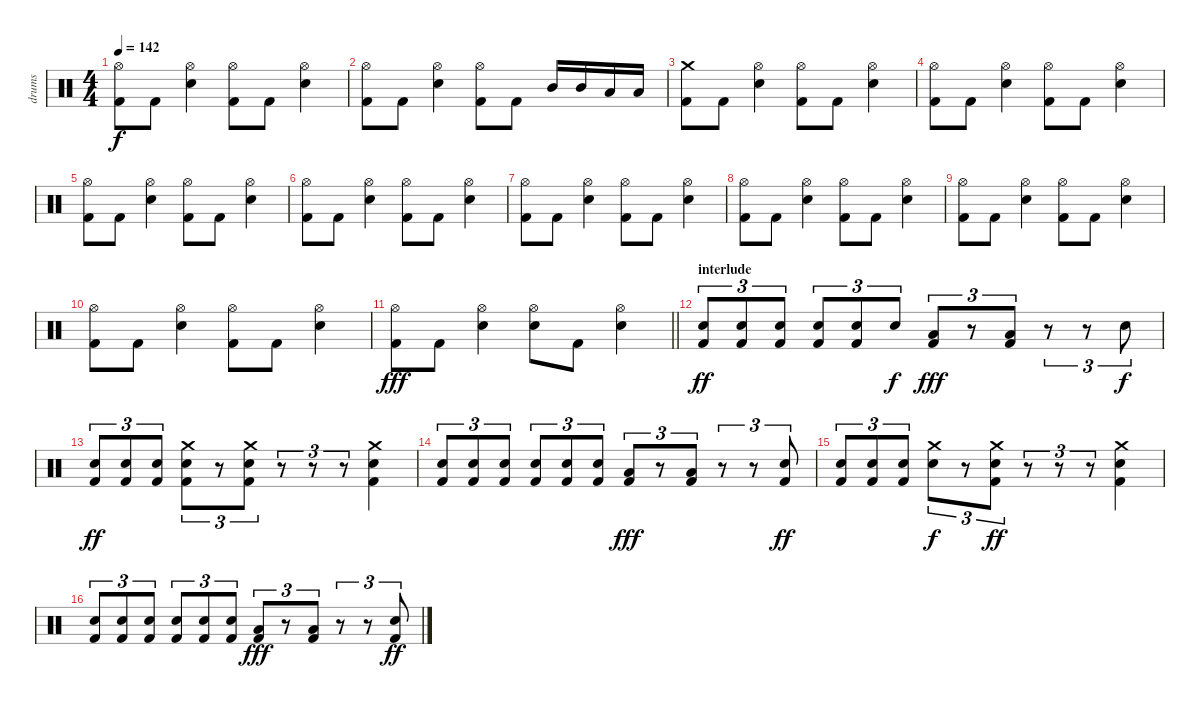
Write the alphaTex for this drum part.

\track ("drums" "drums") {instrument percussion}
\staff {score}
\articulation defaults
\ts (4 4)
\tempo 142
\clef neutral
\ks c
("Hi-Hat (open)" "Kick (hit) 2").8{dy f} "Kick (hit) 2".8 ("Hi-Hat (open)" "Electric Snare (hit)").4 ("Hi-Hat (open)" "Kick (hit) 2").8 "Kick (hit) 2".8 ("Hi-Hat (open)" "Electric Snare (hit)").4 |
("Hi-Hat (open)" "Kick (hit) 2").8 "Kick (hit) 2".8 ("Hi-Hat (open)" "Electric Snare (hit)").4 ("Hi-Hat (open)" "Kick (hit) 2").8 "Kick (hit) 2".8 "Mid Tom (hit)".16 "Mid Tom (hit)".16 "Low Tom (hit)".16 "Low Tom (hit)".16 |
("Crash medium (hit)" "Kick (hit) 2").8 "Kick (hit) 2".8 ("Hi-Hat (open)" "Electric Snare (hit)").4 ("Hi-Hat (open)" "Kick (hit) 2").8 "Kick (hit) 2".8 ("Hi-Hat (open)" "Electric Snare (hit)").4 |
("Hi-Hat (open)" "Kick (hit) 2").8 "Kick (hit) 2".8 ("Hi-Hat (open)" "Electric Snare (hit)").4 ("Hi-Hat (open)" "Kick (hit) 2").8 "Kick (hit) 2".8 ("Hi-Hat (open)" "Electric Snare (hit)").4 |
("Hi-Hat (open)" "Kick (hit) 2").8 "Kick (hit) 2".8 ("Hi-Hat (open)" "Electric Snare (hit)").4 ("Hi-Hat (open)" "Kick (hit) 2").8 "Kick (hit) 2".8 ("Hi-Hat (open)" "Electric Snare (hit)").4 |
("Hi-Hat (open)" "Kick (hit) 2").8 "Kick (hit) 2".8 ("Hi-Hat (open)" "Electric Snare (hit)").4 ("Hi-Hat (open)" "Kick (hit) 2").8 "Kick (hit) 2".8 ("Hi-Hat (open)" "Electric Snare (hit)").4 |
("Hi-Hat (open)" "Kick (hit) 2").8 "Kick (hit) 2".8 ("Hi-Hat (open)" "Electric Snare (hit)").4 ("Hi-Hat (open)" "Kick (hit) 2").8 "Kick (hit) 2".8 ("Hi-Hat (open)" "Electric Snare (hit)").4 |
("Hi-Hat (open)" "Kick (hit) 2").8 "Kick (hit) 2".8 ("Hi-Hat (open)" "Electric Snare (hit)").4 ("Hi-Hat (open)" "Kick (hit) 2").8 "Kick (hit) 2".8 ("Hi-Hat (open)" "Electric Snare (hit)").4 |
("Hi-Hat (open)" "Kick (hit) 2").8 "Kick (hit) 2".8 ("Hi-Hat (open)" "Electric Snare (hit)").4 ("Hi-Hat (open)" "Kick (hit) 2").8 "Kick (hit) 2".8 ("Hi-Hat (open)" "Electric Snare (hit)").4 |
("Hi-Hat (open)" "Kick (hit) 2").8 "Kick (hit) 2".8 ("Hi-Hat (open)" "Electric Snare (hit)").4 ("Hi-Hat (open)" "Kick (hit) 2").8 "Kick (hit) 2".8 ("Hi-Hat (open)" "Electric Snare (hit)").4 |
\barLineRight lightlight
("Hi-Hat (open)" "Kick (hit) 2").8{dy fff} "Kick (hit) 2".8 ("Hi-Hat (open)" "Electric Snare (hit)").4 ("Hi-Hat (open)" "Electric Snare (hit)").8 "Kick (hit) 2".8 ("Hi-Hat (open)" "Electric Snare (hit)").4 |
\section ("" "interlude")
("Electric Snare (hit)" "Kick (hit) 2").8{tu (3 2) dy ff volume 13} ("Electric Snare (hit)" "Kick (hit) 2").8{tu (3 2)} ("Electric Snare (hit)" "Kick (hit) 2").8{tu (3 2)} ("Electric Snare (hit)" "Kick (hit) 2").8{tu (3 2)} ("Electric Snare (hit)" "Kick (hit) 2").8{tu (3 2)} "Electric Snare (hit)".8{tu (3 2) dy f} ("Low Floor Tom (hit)" "Kick (hit) 2").8{tu (3 2) dy fff} r.8{tu (3 2)} ("Low Floor Tom (hit)" "Kick (hit) 2").8{tu (3 2)} r.8{tu (3 2)} r.8{tu (3 2)} "Electric Snare (hit)".8{tu (3 2) dy f} |
("Electric Snare (hit)" "Kick (hit) 2").8{tu (3 2) dy ff} ("Electric Snare (hit)" "Kick (hit) 2").8{tu (3 2)} ("Electric Snare (hit)" "Kick (hit) 2").8{tu (3 2)} ("Crash medium (hit)" "Electric Snare (hit)" "Kick (hit) 2").8{tu (3 2)} r.8{tu (3 2)} ("Crash medium (hit)" "Electric Snare (hit)" "Kick (hit) 2").8{tu (3 2)} r.8{tu (3 2)} r.8{tu (3 2)} r.8{tu (3 2)} ("Crash medium (hit)" "Electric Snare (hit)" "Kick (hit) 2").4 |
("Electric Snare (hit)" "Kick (hit) 2").8{tu (3 2)} ("Electric Snare (hit)" "Kick (hit) 2").8{tu (3 2)} ("Electric Snare (hit)" "Kick (hit) 2").8{tu (3 2)} ("Electric Snare (hit)" "Kick (hit) 2").8{tu (3 2)} ("Electric Snare (hit)" "Kick (hit) 2").8{tu (3 2)} ("Electric Snare (hit)" "Kick (hit) 2").8{tu (3 2)} ("Low Floor Tom (hit)" "Kick (hit) 2").8{tu (3 2) dy fff} r.8{tu (3 2)} ("Low Floor Tom (hit)" "Kick (hit) 2").8{tu (3 2)} r.8{tu (3 2)} r.8{tu (3 2)} ("Electric Snare (hit)" "Kick (hit) 2").8{tu (3 2) dy ff} |
("Electric Snare (hit)" "Kick (hit) 2").8{tu (3 2)} ("Electric Snare (hit)" "Kick (hit) 2").8{tu (3 2)} ("Electric Snare (hit)" "Kick (hit) 2").8{tu (3 2)} ("Crash medium (hit)" "Electric Snare (hit)").8{tu (3 2) dy f} r.8{tu (3 2)} ("Crash medium (hit)" "Electric Snare (hit)" "Kick (hit) 2").8{tu (3 2) dy ff} r.8{tu (3 2)} r.8{tu (3 2)} r.8{tu (3 2)} ("Crash medium (hit)" "Electric Snare (hit)" "Kick (hit) 2").4 |
("Electric Snare (hit)" "Kick (hit) 2").8{tu (3 2)} ("Electric Snare (hit)" "Kick (hit) 2").8{tu (3 2)} ("Electric Snare (hit)" "Kick (hit) 2").8{tu (3 2)} ("Electric Snare (hit)" "Kick (hit) 2").8{tu (3 2)} ("Electric Snare (hit)" "Kick (hit) 2").8{tu (3 2)} ("Electric Snare (hit)" "Kick (hit) 2").8{tu (3 2)} ("Low Floor Tom (hit)" "Kick (hit) 2").8{tu (3 2) dy fff} r.8{tu (3 2)} ("Low Floor Tom (hit)" "Kick (hit) 2").8{tu (3 2)} r.8{tu (3 2)} r.8{tu (3 2)} ("Electric Snare (hit)" "Kick (hit) 2").8{tu (3 2) dy ff}
